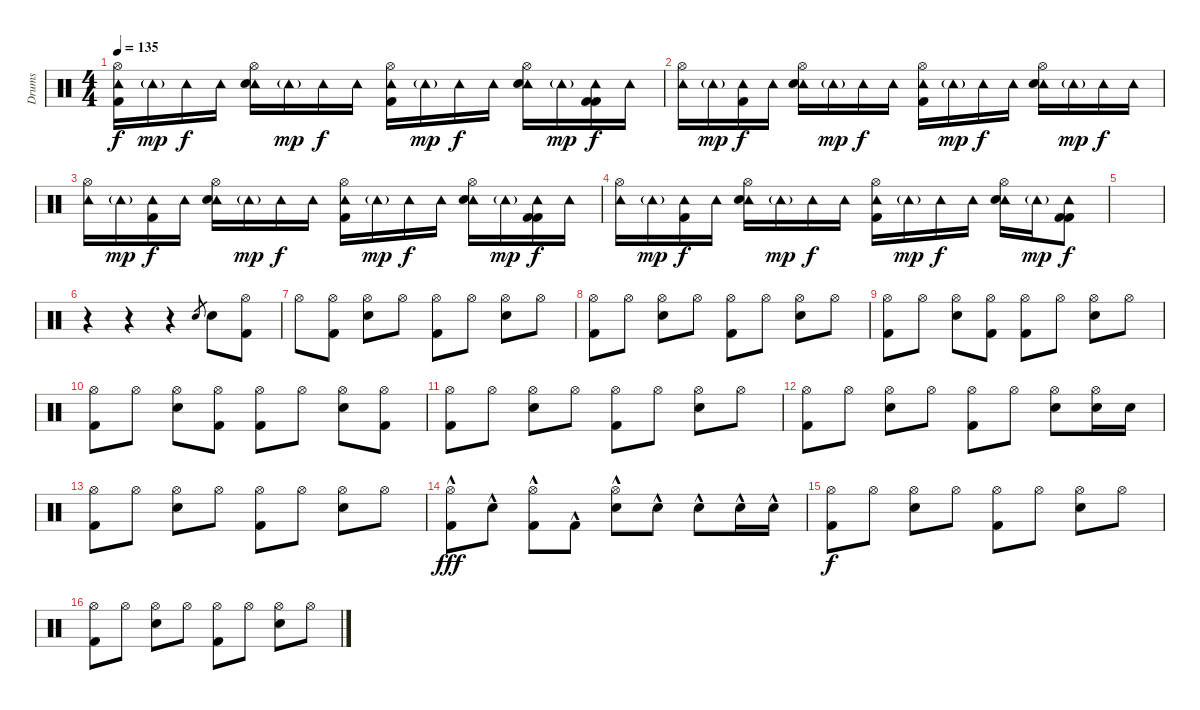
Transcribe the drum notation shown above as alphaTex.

\track ("Drums" "Drums") {instrument percussion}
\staff {score}
\articulation defaults
\ts (4 4)
\tempo 135
\clef neutral
\ks c
("Hi-Hat (open)" "Tambourine (hit)" "Kick (hit) 2").16{dy f} "Tambourine (hit)"{g}.16{dy mp} "Tambourine (hit)".16{dy f} "Tambourine (hit)".16 ("Hi-Hat (open)" "Tambourine (hit)" "Electric Snare (hit)").16 "Tambourine (hit)"{g}.16{dy mp} "Tambourine (hit)".16{dy f} "Tambourine (hit)".16 ("Hi-Hat (open)" "Tambourine (hit)" "Kick (hit) 2").16 "Tambourine (hit)"{g}.16{dy mp} "Tambourine (hit)".16{dy f} "Tambourine (hit)".16 ("Hi-Hat (open)" "Tambourine (hit)" "Electric Snare (hit)").16 "Tambourine (hit)"{g}.16{dy mp} ("Tambourine (hit)" "Kick (hit) 2" "Kick (hit) 2").16{dy f} "Tambourine (hit)".16 |
("Hi-Hat (open)" "Tambourine (hit)").16 "Tambourine (hit)"{g}.16{dy mp} ("Tambourine (hit)" "Kick (hit) 2").16{dy f} "Tambourine (hit)".16 ("Hi-Hat (open)" "Tambourine (hit)" "Electric Snare (hit)").16 "Tambourine (hit)"{g}.16{dy mp} "Tambourine (hit)".16{dy f} "Tambourine (hit)".16 ("Hi-Hat (open)" "Tambourine (hit)" "Kick (hit) 2").16 "Tambourine (hit)"{g}.16{dy mp} "Tambourine (hit)".16{dy f} "Tambourine (hit)".16 ("Hi-Hat (open)" "Tambourine (hit)" "Electric Snare (hit)").16 "Tambourine (hit)"{g}.16{dy mp} "Tambourine (hit)".16{dy f} "Tambourine (hit)".16 |
("Hi-Hat (open)" "Tambourine (hit)").16 "Tambourine (hit)"{g}.16{dy mp} ("Tambourine (hit)" "Kick (hit) 2").16{dy f} "Tambourine (hit)".16 ("Hi-Hat (open)" "Tambourine (hit)" "Electric Snare (hit)").16 "Tambourine (hit)"{g}.16{dy mp} "Tambourine (hit)".16{dy f} "Tambourine (hit)".16 ("Hi-Hat (open)" "Tambourine (hit)" "Kick (hit) 2").16 "Tambourine (hit)"{g}.16{dy mp} "Tambourine (hit)".16{dy f} "Tambourine (hit)".16 ("Hi-Hat (open)" "Tambourine (hit)" "Electric Snare (hit)").16 "Tambourine (hit)"{g}.16{dy mp} ("Tambourine (hit)" "Kick (hit) 2" "Kick (hit) 2").16{dy f} "Tambourine (hit)".16 |
("Hi-Hat (open)" "Tambourine (hit)").16 "Tambourine (hit)"{g}.16{dy mp} ("Tambourine (hit)" "Kick (hit) 2").16{dy f} "Tambourine (hit)".16 ("Hi-Hat (open)" "Tambourine (hit)" "Electric Snare (hit)").16 "Tambourine (hit)"{g}.16{dy mp} "Tambourine (hit)".16{dy f} "Tambourine (hit)".16 ("Hi-Hat (open)" "Tambourine (hit)" "Kick (hit) 2").16 "Tambourine (hit)"{g}.16{dy mp} "Tambourine (hit)".16{dy f} "Tambourine (hit)".16 ("Hi-Hat (open)" "Tambourine (hit)" "Electric Snare (hit)").16 "Tambourine (hit)"{g}.16{dy mp} ("Tambourine (hit)" "Kick (hit) 2" "Kick (hit) 2").8{dy f} |
|
r.4 r.4 r.4 "Electric Snare (hit)".8{gr} "Electric Snare (hit)".8 ("Hi-Hat (open)" "Kick (hit) 2").8 |
"Hi-Hat (open)".8 ("Hi-Hat (open)" "Kick (hit) 2").8 ("Hi-Hat (open)" "Electric Snare (hit)").8 "Hi-Hat (open)".8 ("Hi-Hat (open)" "Kick (hit) 2").8 "Hi-Hat (open)".8 ("Hi-Hat (open)" "Electric Snare (hit)").8 "Hi-Hat (open)".8 |
("Hi-Hat (open)" "Kick (hit) 2").8 "Hi-Hat (open)".8 ("Hi-Hat (open)" "Electric Snare (hit)").8 "Hi-Hat (open)".8 ("Hi-Hat (open)" "Kick (hit) 2").8 "Hi-Hat (open)".8 ("Hi-Hat (open)" "Electric Snare (hit)").8 "Hi-Hat (open)".8 |
("Hi-Hat (open)" "Kick (hit) 2").8 "Hi-Hat (open)".8 ("Hi-Hat (open)" "Electric Snare (hit)").8 ("Hi-Hat (open)" "Kick (hit) 2").8 ("Hi-Hat (open)" "Kick (hit) 2").8 "Hi-Hat (open)".8 ("Hi-Hat (open)" "Electric Snare (hit)").8 "Hi-Hat (open)".8 |
("Hi-Hat (open)" "Kick (hit) 2").8 "Hi-Hat (open)".8 ("Hi-Hat (open)" "Electric Snare (hit)").8 ("Hi-Hat (open)" "Kick (hit) 2").8 ("Hi-Hat (open)" "Kick (hit) 2").8 "Hi-Hat (open)".8 ("Hi-Hat (open)" "Electric Snare (hit)").8 ("Hi-Hat (open)" "Kick (hit) 2").8 |
("Hi-Hat (open)" "Kick (hit) 2").8 "Hi-Hat (open)".8 ("Hi-Hat (open)" "Electric Snare (hit)").8 "Hi-Hat (open)".8 ("Hi-Hat (open)" "Kick (hit) 2").8 "Hi-Hat (open)".8 ("Hi-Hat (open)" "Electric Snare (hit)").8 "Hi-Hat (open)".8 |
("Hi-Hat (open)" "Kick (hit) 2").8 "Hi-Hat (open)".8 ("Hi-Hat (open)" "Electric Snare (hit)").8 "Hi-Hat (open)".8 ("Hi-Hat (open)" "Kick (hit) 2").8 "Hi-Hat (open)".8 ("Hi-Hat (open)" "Electric Snare (hit)").8 ("Hi-Hat (open)" "Electric Snare (hit)").16 "Electric Snare (hit)".16 |
("Hi-Hat (open)" "Kick (hit) 2").8 "Hi-Hat (open)".8 ("Hi-Hat (open)" "Electric Snare (hit)").8 "Hi-Hat (open)".8 ("Hi-Hat (open)" "Kick (hit) 2").8 "Hi-Hat (open)".8 ("Hi-Hat (open)" "Electric Snare (hit)").8 "Hi-Hat (open)".8 |
("Hi-Hat (open)" "Kick (hit) 2"{hac}).8{dy fff} "Electric Snare (hit)"{hac}.8 ("Hi-Hat (open)" "Kick (hit) 2"{hac}).8 "Kick (hit) 2"{hac}.8 ("Hi-Hat (open)" "Electric Snare (hit)"{hac}).8 "Electric Snare (hit)"{hac}.8 "Electric Snare (hit)"{hac}.8 "Electric Snare (hit)"{hac}.16 "Electric Snare (hit)"{hac}.16 |
("Hi-Hat (open)" "Kick (hit) 2").8{dy f} "Hi-Hat (open)".8 ("Hi-Hat (open)" "Electric Snare (hit)").8 "Hi-Hat (open)".8 ("Hi-Hat (open)" "Kick (hit) 2").8 "Hi-Hat (open)".8 ("Hi-Hat (open)" "Electric Snare (hit)").8 "Hi-Hat (open)".8 |
("Hi-Hat (open)" "Kick (hit) 2").8 "Hi-Hat (open)".8 ("Hi-Hat (open)" "Electric Snare (hit)").8 "Hi-Hat (open)".8 ("Hi-Hat (open)" "Kick (hit) 2").8 "Hi-Hat (open)".8 ("Hi-Hat (open)" "Electric Snare (hit)").8 "Hi-Hat (open)".8
